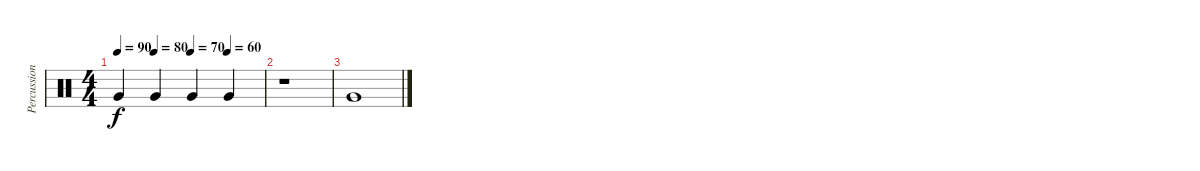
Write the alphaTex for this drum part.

\track ("Percussions" "Percussion") {instrument percussion}
\staff {score}
\articulation defaults
\ts (4 4)
\tempo 90
\tempo (80 0.25)
\tempo (70 0.5)
\tempo (60 0.75)
\clef neutral
\ks c "Very Low Tom (hit)".4{dy f} "Very Low Tom (hit)".4 "Very Low Tom (hit)".4 "Very Low Tom (hit)".4
|
r.1 |
"Very Low Tom (hit)".1
